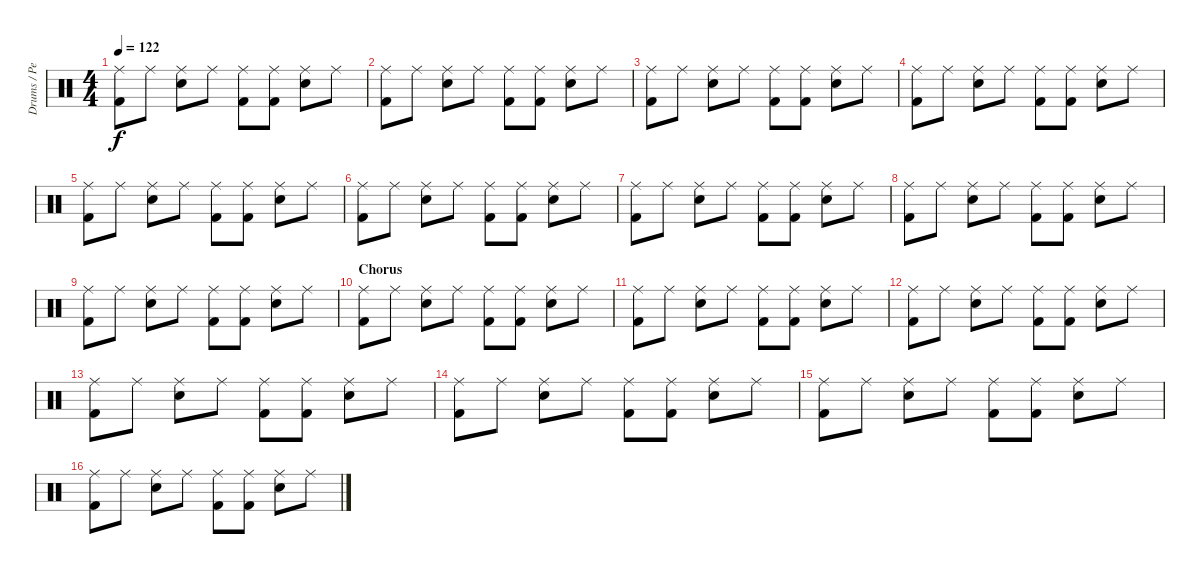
\track ("Drums / Percussion" "Drums / Pe") {instrument percussion}
\staff {score}
\articulation defaults
\ts (4 4)
\tempo 122
\clef neutral
\ks c
("Ride (middle)" "Kick (hit) 2").8{dy f} "Ride (middle)".8 ("Ride (middle)" "Snare (hit) 2").8 "Ride (middle)".8 ("Ride (middle)" "Kick (hit) 2").8 ("Ride (middle)" "Kick (hit) 2").8 ("Ride (middle)" "Snare (hit) 2").8 "Ride (middle)".8 |
("Ride (middle)" "Kick (hit) 2").8 "Ride (middle)".8 ("Ride (middle)" "Snare (hit) 2").8 "Ride (middle)".8 ("Ride (middle)" "Kick (hit) 2").8 ("Ride (middle)" "Kick (hit) 2").8 ("Ride (middle)" "Snare (hit) 2").8 "Ride (middle)".8 |
("Ride (middle)" "Kick (hit) 2").8 "Ride (middle)".8 ("Ride (middle)" "Snare (hit) 2").8 "Ride (middle)".8 ("Ride (middle)" "Kick (hit) 2").8 ("Ride (middle)" "Kick (hit) 2").8 ("Ride (middle)" "Snare (hit) 2").8 "Ride (middle)".8 |
("Ride (middle)" "Kick (hit) 2").8 "Ride (middle)".8 ("Ride (middle)" "Snare (hit) 2").8 "Ride (middle)".8 ("Ride (middle)" "Kick (hit) 2").8 ("Ride (middle)" "Kick (hit) 2").8 ("Ride (middle)" "Snare (hit) 2").8 "Ride (middle)".8 |
("Ride (middle)" "Kick (hit) 2").8 "Ride (middle)".8 ("Ride (middle)" "Snare (hit) 2").8 "Ride (middle)".8 ("Ride (middle)" "Kick (hit) 2").8 ("Ride (middle)" "Kick (hit) 2").8 ("Ride (middle)" "Snare (hit) 2").8 "Ride (middle)".8 |
("Ride (middle)" "Kick (hit) 2").8 "Ride (middle)".8 ("Ride (middle)" "Snare (hit) 2").8 "Ride (middle)".8 ("Ride (middle)" "Kick (hit) 2").8 ("Ride (middle)" "Kick (hit) 2").8 ("Ride (middle)" "Snare (hit) 2").8 "Ride (middle)".8 |
("Ride (middle)" "Kick (hit) 2").8 "Ride (middle)".8 ("Ride (middle)" "Snare (hit) 2").8 "Ride (middle)".8 ("Ride (middle)" "Kick (hit) 2").8 ("Ride (middle)" "Kick (hit) 2").8 ("Ride (middle)" "Snare (hit) 2").8 "Ride (middle)".8 |
("Ride (middle)" "Kick (hit) 2").8 "Ride (middle)".8 ("Ride (middle)" "Snare (hit) 2").8 "Ride (middle)".8 ("Ride (middle)" "Kick (hit) 2").8 ("Ride (middle)" "Kick (hit) 2").8 ("Ride (middle)" "Snare (hit) 2").8 "Ride (middle)".8 |
("Ride (middle)" "Kick (hit) 2").8 "Ride (middle)".8 ("Ride (middle)" "Snare (hit) 2").8 "Ride (middle)".8 ("Ride (middle)" "Kick (hit) 2").8 ("Ride (middle)" "Kick (hit) 2").8 ("Ride (middle)" "Snare (hit) 2").8 "Ride (middle)".8 |
\section ("" "Chorus")
("Ride (middle)" "Kick (hit) 2").8 "Ride (middle)".8 ("Ride (middle)" "Snare (hit) 2").8 "Ride (middle)".8 ("Ride (middle)" "Kick (hit) 2").8 ("Ride (middle)" "Kick (hit) 2").8 ("Ride (middle)" "Snare (hit) 2").8 "Ride (middle)".8 |
("Ride (middle)" "Kick (hit) 2").8 "Ride (middle)".8 ("Ride (middle)" "Snare (hit) 2").8 "Ride (middle)".8 ("Ride (middle)" "Kick (hit) 2").8 ("Ride (middle)" "Kick (hit) 2").8 ("Ride (middle)" "Snare (hit) 2").8 "Ride (middle)".8 |
("Ride (middle)" "Kick (hit) 2").8 "Ride (middle)".8 ("Ride (middle)" "Snare (hit) 2").8 "Ride (middle)".8 ("Ride (middle)" "Kick (hit) 2").8 ("Ride (middle)" "Kick (hit) 2").8 ("Ride (middle)" "Snare (hit) 2").8 "Ride (middle)".8 |
("Ride (middle)" "Kick (hit) 2").8 "Ride (middle)".8 ("Ride (middle)" "Snare (hit) 2").8 "Ride (middle)".8 ("Ride (middle)" "Kick (hit) 2").8 ("Ride (middle)" "Kick (hit) 2").8 ("Ride (middle)" "Snare (hit) 2").8 "Ride (middle)".8 |
("Ride (middle)" "Kick (hit) 2").8 "Ride (middle)".8 ("Ride (middle)" "Snare (hit) 2").8 "Ride (middle)".8 ("Ride (middle)" "Kick (hit) 2").8 ("Ride (middle)" "Kick (hit) 2").8 ("Ride (middle)" "Snare (hit) 2").8 "Ride (middle)".8 |
("Ride (middle)" "Kick (hit) 2").8 "Ride (middle)".8 ("Ride (middle)" "Snare (hit) 2").8 "Ride (middle)".8 ("Ride (middle)" "Kick (hit) 2").8 ("Ride (middle)" "Kick (hit) 2").8 ("Ride (middle)" "Snare (hit) 2").8 "Ride (middle)".8 |
("Ride (middle)" "Kick (hit) 2").8 "Ride (middle)".8 ("Ride (middle)" "Snare (hit) 2").8 "Ride (middle)".8 ("Ride (middle)" "Kick (hit) 2").8 ("Ride (middle)" "Kick (hit) 2").8 ("Ride (middle)" "Snare (hit) 2").8 "Ride (middle)".8
